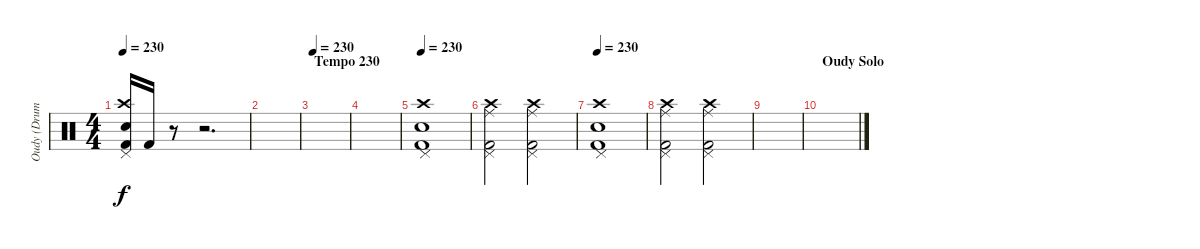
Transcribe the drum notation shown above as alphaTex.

\track ("Oudy (Drums) (See F5)" "Oudy (Drum") {instrument percussion}
\staff {score}
\articulation defaults
\ts (4 4)
\tempo 230
\clef neutral
\ks c
("Electric Snare (hit)" "Crash high (hit)" "Kick (hit) 2" "Pedal Hi-Hat (hit)").16{dy f} "Kick (hit) 2".16 r.8 r.2{d} |
|
\section ("" "Tempo 230")
\tempo 230
|
|
\tempo 230
("Crash high (hit)" "Electric Snare (hit)" "Pedal Hi-Hat (hit)" "Kick (hit) 2").1 |
("Crash high (hit)" "Ride (middle)" "Pedal Hi-Hat (hit)" "Kick (hit) 2").2 ("Crash high (hit)" "Ride (middle)" "Pedal Hi-Hat (hit)" "Kick (hit) 2").2 |
\tempo 230
("Crash high (hit)" "Electric Snare (hit)" "Pedal Hi-Hat (hit)" "Kick (hit) 2").1 |
("Crash high (hit)" "Ride (middle)" "Pedal Hi-Hat (hit)" "Kick (hit) 2").2 ("Crash high (hit)" "Ride (middle)" "Pedal Hi-Hat (hit)" "Kick (hit) 2").2 |
|
\section ("" "Oudy Solo")
